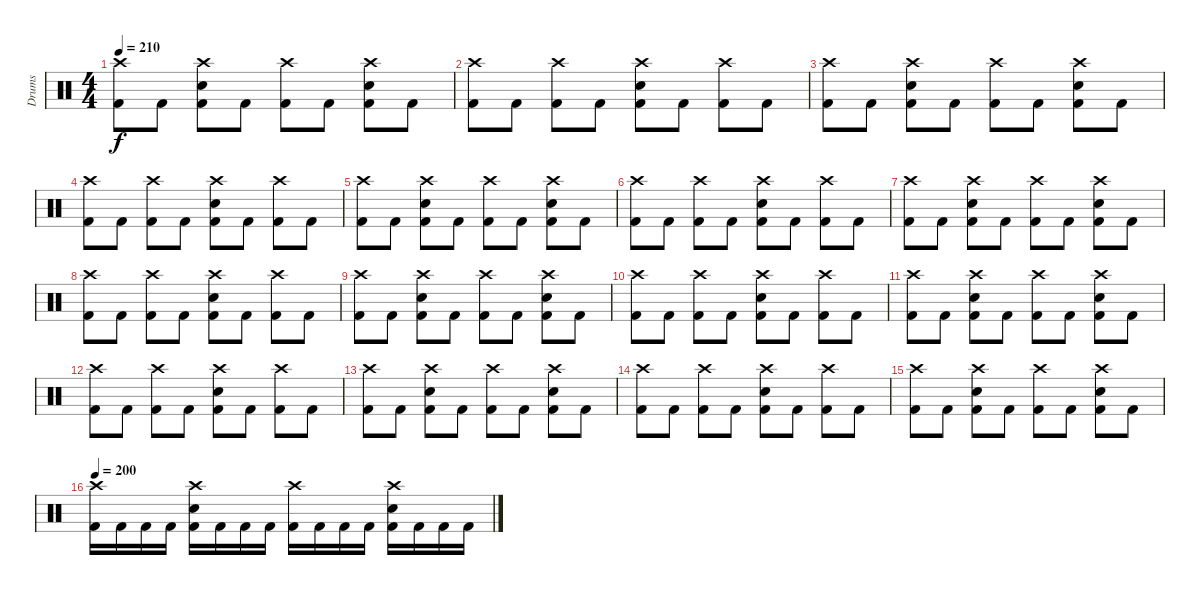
\track ("Drums" "Drums") {instrument percussion}
\staff {score}
\articulation defaults
\ts (4 4)
\tempo 210
\clef neutral
\ks c
("Crash high (hit)" "Kick (hit) 2").8{dy f} "Kick (hit) 2".8 ("Crash high (hit)" "Snare (hit) 2" "Kick (hit) 2").8 "Kick (hit) 2".8 ("Crash high (hit)" "Kick (hit) 2").8 "Kick (hit) 2".8 ("Crash high (hit)" "Snare (hit) 2" "Kick (hit) 2").8 "Kick (hit) 2".8 |
("Crash high (hit)" "Kick (hit) 2").8 "Kick (hit) 2".8 ("Crash high (hit)" "Kick (hit) 2").8 "Kick (hit) 2".8 ("Crash high (hit)" "Snare (hit) 2" "Kick (hit) 2").8 "Kick (hit) 2".8 ("Crash high (hit)" "Kick (hit) 2").8 "Kick (hit) 2".8 |
("Crash high (hit)" "Kick (hit) 2").8 "Kick (hit) 2".8 ("Crash high (hit)" "Snare (hit) 2" "Kick (hit) 2").8 "Kick (hit) 2".8 ("Crash high (hit)" "Kick (hit) 2").8 "Kick (hit) 2".8 ("Crash high (hit)" "Snare (hit) 2" "Kick (hit) 2").8 "Kick (hit) 2".8 |
("Crash high (hit)" "Kick (hit) 2").8 "Kick (hit) 2".8 ("Crash high (hit)" "Kick (hit) 2").8 "Kick (hit) 2".8 ("Crash high (hit)" "Snare (hit) 2" "Kick (hit) 2").8 "Kick (hit) 2".8 ("Crash high (hit)" "Kick (hit) 2").8 "Kick (hit) 2".8 |
("Crash high (hit)" "Kick (hit) 2").8 "Kick (hit) 2".8 ("Crash high (hit)" "Snare (hit) 2" "Kick (hit) 2").8 "Kick (hit) 2".8 ("Crash high (hit)" "Kick (hit) 2").8 "Kick (hit) 2".8 ("Crash high (hit)" "Snare (hit) 2" "Kick (hit) 2").8 "Kick (hit) 2".8 |
("Crash high (hit)" "Kick (hit) 2").8 "Kick (hit) 2".8 ("Crash high (hit)" "Kick (hit) 2").8 "Kick (hit) 2".8 ("Crash high (hit)" "Snare (hit) 2" "Kick (hit) 2").8 "Kick (hit) 2".8 ("Crash high (hit)" "Kick (hit) 2").8 "Kick (hit) 2".8 |
("Crash high (hit)" "Kick (hit) 2").8 "Kick (hit) 2".8 ("Crash high (hit)" "Snare (hit) 2" "Kick (hit) 2").8 "Kick (hit) 2".8 ("Crash high (hit)" "Kick (hit) 2").8 "Kick (hit) 2".8 ("Crash high (hit)" "Snare (hit) 2" "Kick (hit) 2").8 "Kick (hit) 2".8 |
("Crash high (hit)" "Kick (hit) 2").8 "Kick (hit) 2".8 ("Crash high (hit)" "Kick (hit) 2").8 "Kick (hit) 2".8 ("Crash high (hit)" "Snare (hit) 2" "Kick (hit) 2").8 "Kick (hit) 2".8 ("Crash high (hit)" "Kick (hit) 2").8 "Kick (hit) 2".8 |
("Crash high (hit)" "Kick (hit) 2").8 "Kick (hit) 2".8 ("Crash high (hit)" "Snare (hit) 2" "Kick (hit) 2").8 "Kick (hit) 2".8 ("Crash high (hit)" "Kick (hit) 2").8 "Kick (hit) 2".8 ("Crash high (hit)" "Snare (hit) 2" "Kick (hit) 2").8 "Kick (hit) 2".8 |
("Crash high (hit)" "Kick (hit) 2").8 "Kick (hit) 2".8 ("Crash high (hit)" "Kick (hit) 2").8 "Kick (hit) 2".8 ("Crash high (hit)" "Snare (hit) 2" "Kick (hit) 2").8 "Kick (hit) 2".8 ("Crash high (hit)" "Kick (hit) 2").8 "Kick (hit) 2".8 |
("Crash high (hit)" "Kick (hit) 2").8 "Kick (hit) 2".8 ("Crash high (hit)" "Snare (hit) 2" "Kick (hit) 2").8 "Kick (hit) 2".8 ("Crash high (hit)" "Kick (hit) 2").8 "Kick (hit) 2".8 ("Crash high (hit)" "Snare (hit) 2" "Kick (hit) 2").8 "Kick (hit) 2".8 |
("Crash high (hit)" "Kick (hit) 2").8 "Kick (hit) 2".8 ("Crash high (hit)" "Kick (hit) 2").8 "Kick (hit) 2".8 ("Crash high (hit)" "Snare (hit) 2" "Kick (hit) 2").8 "Kick (hit) 2".8 ("Crash high (hit)" "Kick (hit) 2").8 "Kick (hit) 2".8 |
("Crash high (hit)" "Kick (hit) 2").8 "Kick (hit) 2".8 ("Crash high (hit)" "Snare (hit) 2" "Kick (hit) 2").8 "Kick (hit) 2".8 ("Crash high (hit)" "Kick (hit) 2").8 "Kick (hit) 2".8 ("Crash high (hit)" "Snare (hit) 2" "Kick (hit) 2").8 "Kick (hit) 2".8 |
("Crash high (hit)" "Kick (hit) 2").8 "Kick (hit) 2".8 ("Crash high (hit)" "Kick (hit) 2").8 "Kick (hit) 2".8 ("Crash high (hit)" "Snare (hit) 2" "Kick (hit) 2").8 "Kick (hit) 2".8 ("Crash high (hit)" "Kick (hit) 2").8 "Kick (hit) 2".8 |
("Crash high (hit)" "Kick (hit) 2").8 "Kick (hit) 2".8 ("Crash high (hit)" "Snare (hit) 2" "Kick (hit) 2").8 "Kick (hit) 2".8 ("Crash high (hit)" "Kick (hit) 2").8 "Kick (hit) 2".8 ("Crash high (hit)" "Snare (hit) 2" "Kick (hit) 2").8 "Kick (hit) 2".8 |
\tempo 200
("Crash high (hit)" "Kick (hit) 2").16 "Kick (hit) 2".16 "Kick (hit) 2".16 "Kick (hit) 2".16 ("Crash high (hit)" "Snare (hit) 2" "Kick (hit) 2").16 "Kick (hit) 2".16 "Kick (hit) 2".16 "Kick (hit) 2".16 ("Crash high (hit)" "Kick (hit) 2").16 "Kick (hit) 2".16 "Kick (hit) 2".16 "Kick (hit) 2".16 ("Crash high (hit)" "Snare (hit) 2" "Kick (hit) 2").16 "Kick (hit) 2".16 "Kick (hit) 2".16 "Kick (hit) 2".16
